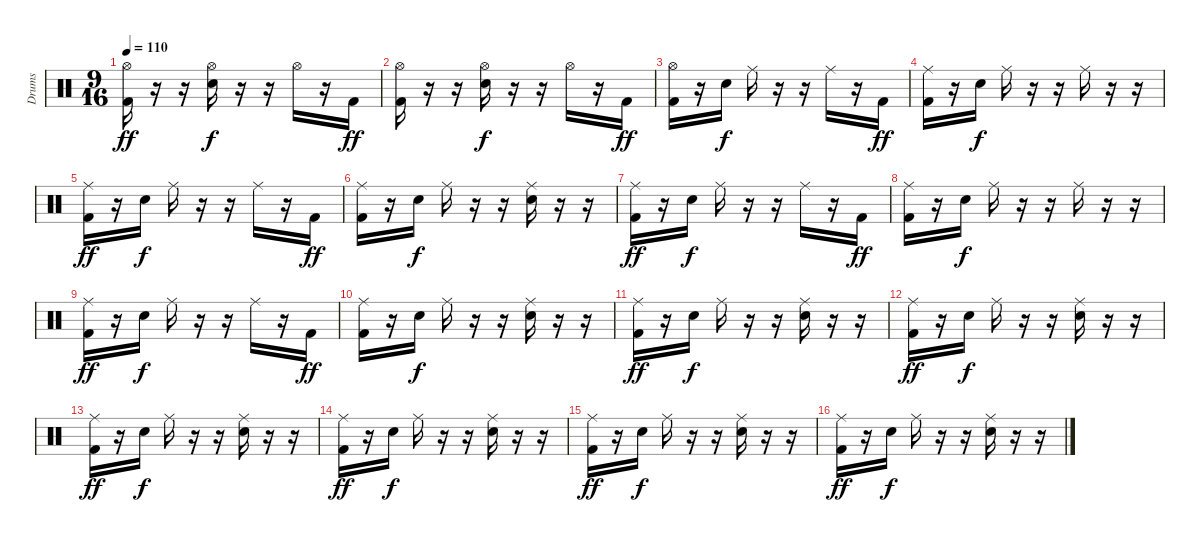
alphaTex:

\track ("Drums" "Drums") {instrument percussion}
\staff {score}
\articulation defaults
\ts (9 16)
\tempo 110
\clef neutral
\ks c
("Hi-Hat (open)" "Kick (hit) 2").16{dy ff} r.16 r.16 ("Hi-Hat (open)" "Snare (hit) 2").16{dy f} r.16 r.16 "Hi-Hat (open)".16 r.16 "Kick (hit) 2".16{dy ff} |
("Hi-Hat (open)" "Kick (hit) 2").16 r.16 r.16 ("Hi-Hat (open)" "Snare (hit) 2").16{dy f} r.16 r.16 "Hi-Hat (open)".16 r.16 "Kick (hit) 2".16{dy ff} |
("Hi-Hat (open)" "Kick (hit) 2").16 r.16 "Snare (hit) 2".16{dy f} "Ride (middle)".16 r.16 r.16 "Ride (middle)".16 r.16 "Kick (hit) 2".16{dy ff} |
("Ride (middle)" "Kick (hit) 2").16 r.16 "Snare (hit) 2".16{dy f} "Ride (middle)".16 r.16 r.16 "Ride (middle)".16 r.16 r.16 |
("Ride (middle)" "Kick (hit) 2").16{dy ff} r.16 "Snare (hit) 2".16{dy f} "Ride (middle)".16 r.16 r.16 "Ride (middle)".16 r.16 "Kick (hit) 2".16{dy ff} |
("Ride (middle)" "Kick (hit) 2").16 r.16 "Snare (hit) 2".16{dy f} "Ride (middle)".16 r.16 r.16 ("Ride (middle)" "Snare (hit) 2").16 r.16 r.16 |
("Ride (middle)" "Kick (hit) 2").16{dy ff} r.16 "Snare (hit) 2".16{dy f} "Ride (middle)".16 r.16 r.16 "Ride (middle)".16 r.16 "Kick (hit) 2".16{dy ff} |
("Ride (middle)" "Kick (hit) 2").16 r.16 "Snare (hit) 2".16{dy f} "Ride (middle)".16 r.16 r.16 "Ride (middle)".16 r.16 r.16 |
("Ride (middle)" "Kick (hit) 2").16{dy ff} r.16 "Snare (hit) 2".16{dy f} "Ride (middle)".16 r.16 r.16 "Ride (middle)".16 r.16 "Kick (hit) 2".16{dy ff} |
("Ride (middle)" "Kick (hit) 2").16 r.16 "Snare (hit) 2".16{dy f} "Ride (middle)".16 r.16 r.16 ("Ride (middle)" "Snare (hit) 2").16 r.16 r.16 |
("Ride (middle)" "Kick (hit) 2").16{dy ff} r.16 "Snare (hit) 2".16{dy f} "Ride (middle)".16 r.16 r.16 ("Ride (middle)" "Snare (hit) 2").16 r.16 r.16 |
("Ride (middle)" "Kick (hit) 2").16{dy ff} r.16 "Snare (hit) 2".16{dy f} "Ride (middle)".16 r.16 r.16 ("Ride (middle)" "Snare (hit) 2").16 r.16 r.16 |
("Ride (middle)" "Kick (hit) 2").16{dy ff} r.16 "Snare (hit) 2".16{dy f} "Ride (middle)".16 r.16 r.16 ("Ride (middle)" "Snare (hit) 2").16 r.16 r.16 |
("Ride (middle)" "Kick (hit) 2").16{dy ff} r.16 "Snare (hit) 2".16{dy f} "Ride (middle)".16 r.16 r.16 ("Ride (middle)" "Snare (hit) 2").16 r.16 r.16 |
("Ride (middle)" "Kick (hit) 2").16{dy ff} r.16 "Snare (hit) 2".16{dy f} "Ride (middle)".16 r.16 r.16 ("Ride (middle)" "Snare (hit) 2").16 r.16 r.16 |
("Ride (middle)" "Kick (hit) 2").16{dy ff} r.16 "Snare (hit) 2".16{dy f} "Ride (middle)".16 r.16 r.16 ("Ride (middle)" "Snare (hit) 2").16 r.16 r.16
